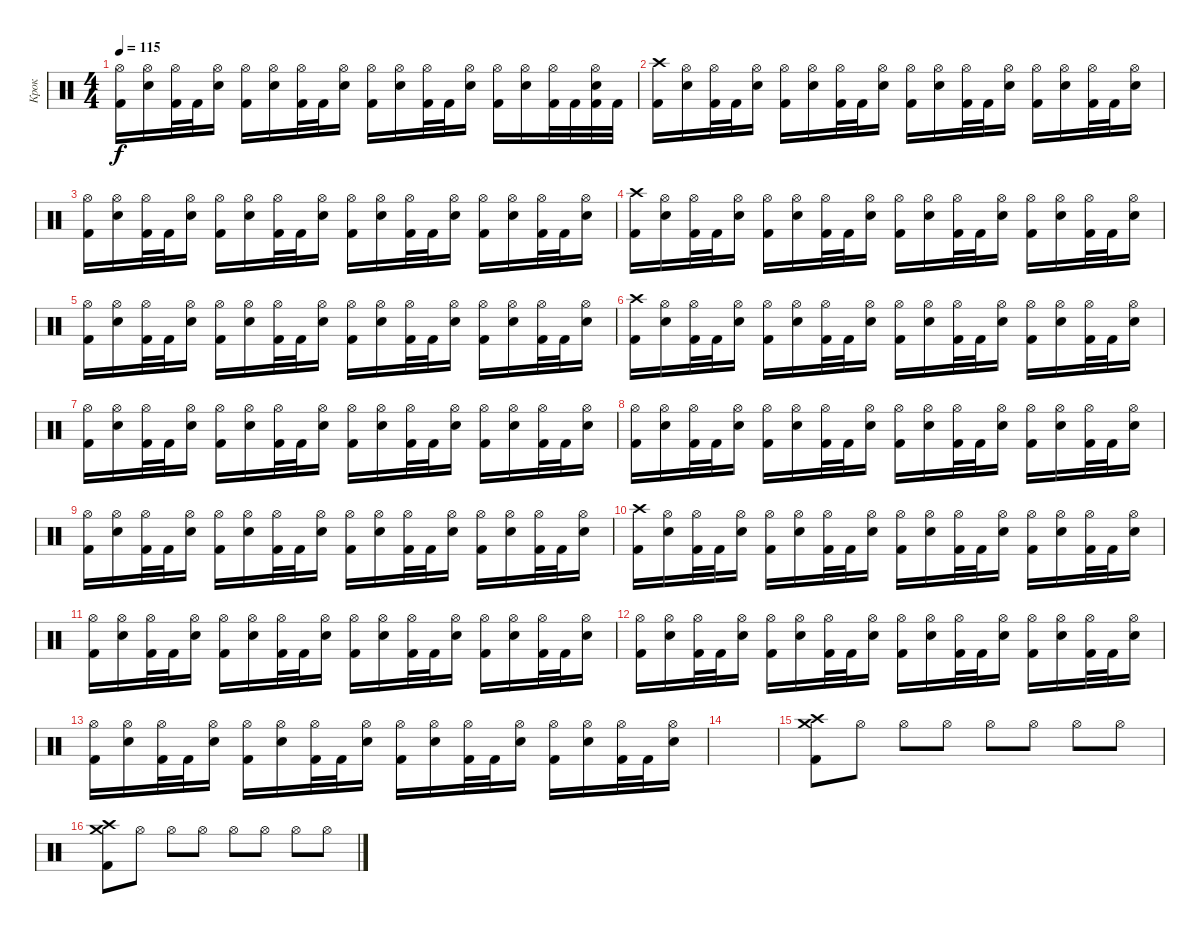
\track ("Крок" "Крок") {instrument percussion}
\staff {score}
\articulation defaults
\ts (4 4)
\tempo 115
\clef neutral
\ks c
("Hi-Hat (open)" "Kick (hit) 2").16{dy f} ("Hi-Hat (open)" "Electric Snare (hit)").16 ("Hi-Hat (open)" "Kick (hit) 2").32 "Kick (hit) 2".32 ("Hi-Hat (open)" "Electric Snare (hit)").16 ("Hi-Hat (open)" "Kick (hit) 2").16 ("Hi-Hat (open)" "Electric Snare (hit)").16 ("Hi-Hat (open)" "Kick (hit) 2").32 "Kick (hit) 2".32 ("Hi-Hat (open)" "Electric Snare (hit)").16 ("Hi-Hat (open)" "Kick (hit) 2").16 ("Hi-Hat (open)" "Electric Snare (hit)").16 ("Hi-Hat (open)" "Kick (hit) 2").32 "Kick (hit) 2".32 ("Hi-Hat (open)" "Electric Snare (hit)").16 ("Hi-Hat (open)" "Kick (hit) 2").16 ("Hi-Hat (open)" "Electric Snare (hit)").16 ("Hi-Hat (open)" "Kick (hit) 2").32 "Kick (hit) 2".32 ("Hi-Hat (open)" "Electric Snare (hit)" "Kick (hit) 2").32 "Kick (hit) 2".32 |
("Crash high (hit)" "Kick (hit) 2").16 ("Hi-Hat (open)" "Electric Snare (hit)").16 ("Hi-Hat (open)" "Kick (hit) 2").32 "Kick (hit) 2".32 ("Hi-Hat (open)" "Electric Snare (hit)").16 ("Hi-Hat (open)" "Kick (hit) 2").16 ("Hi-Hat (open)" "Electric Snare (hit)").16 ("Hi-Hat (open)" "Kick (hit) 2").32 "Kick (hit) 2".32 ("Hi-Hat (open)" "Electric Snare (hit)").16 ("Hi-Hat (open)" "Kick (hit) 2").16 ("Hi-Hat (open)" "Electric Snare (hit)").16 ("Hi-Hat (open)" "Kick (hit) 2").32 "Kick (hit) 2".32 ("Hi-Hat (open)" "Electric Snare (hit)").16 ("Hi-Hat (open)" "Kick (hit) 2").16 ("Hi-Hat (open)" "Electric Snare (hit)").16 ("Hi-Hat (open)" "Kick (hit) 2").32 "Kick (hit) 2".32 ("Hi-Hat (open)" "Electric Snare (hit)").16 |
("Hi-Hat (open)" "Kick (hit) 2").16 ("Hi-Hat (open)" "Electric Snare (hit)").16 ("Hi-Hat (open)" "Kick (hit) 2").32 "Kick (hit) 2".32 ("Hi-Hat (open)" "Electric Snare (hit)").16 ("Hi-Hat (open)" "Kick (hit) 2").16 ("Hi-Hat (open)" "Electric Snare (hit)").16 ("Hi-Hat (open)" "Kick (hit) 2").32 "Kick (hit) 2".32 ("Hi-Hat (open)" "Electric Snare (hit)").16 ("Hi-Hat (open)" "Kick (hit) 2").16 ("Hi-Hat (open)" "Electric Snare (hit)").16 ("Hi-Hat (open)" "Kick (hit) 2").32 "Kick (hit) 2".32 ("Hi-Hat (open)" "Electric Snare (hit)").16 ("Hi-Hat (open)" "Kick (hit) 2").16 ("Hi-Hat (open)" "Electric Snare (hit)").16 ("Hi-Hat (open)" "Kick (hit) 2").32 "Kick (hit) 2".32 ("Hi-Hat (open)" "Electric Snare (hit)").16 |
("Crash high (hit)" "Kick (hit) 2").16 ("Hi-Hat (open)" "Electric Snare (hit)").16 ("Hi-Hat (open)" "Kick (hit) 2").32 "Kick (hit) 2".32 ("Hi-Hat (open)" "Electric Snare (hit)").16 ("Hi-Hat (open)" "Kick (hit) 2").16 ("Hi-Hat (open)" "Electric Snare (hit)").16 ("Hi-Hat (open)" "Kick (hit) 2").32 "Kick (hit) 2".32 ("Hi-Hat (open)" "Electric Snare (hit)").16 ("Hi-Hat (open)" "Kick (hit) 2").16 ("Hi-Hat (open)" "Electric Snare (hit)").16 ("Hi-Hat (open)" "Kick (hit) 2").32 "Kick (hit) 2".32 ("Hi-Hat (open)" "Electric Snare (hit)").16 ("Hi-Hat (open)" "Kick (hit) 2").16 ("Hi-Hat (open)" "Electric Snare (hit)").16 ("Hi-Hat (open)" "Kick (hit) 2").32 "Kick (hit) 2".32 ("Hi-Hat (open)" "Electric Snare (hit)").16 |
("Hi-Hat (open)" "Kick (hit) 2").16 ("Hi-Hat (open)" "Electric Snare (hit)").16 ("Hi-Hat (open)" "Kick (hit) 2").32 "Kick (hit) 2".32 ("Hi-Hat (open)" "Electric Snare (hit)").16 ("Hi-Hat (open)" "Kick (hit) 2").16 ("Hi-Hat (open)" "Electric Snare (hit)").16 ("Hi-Hat (open)" "Kick (hit) 2").32 "Kick (hit) 2".32 ("Hi-Hat (open)" "Electric Snare (hit)").16 ("Hi-Hat (open)" "Kick (hit) 2").16 ("Hi-Hat (open)" "Electric Snare (hit)").16 ("Hi-Hat (open)" "Kick (hit) 2").32 "Kick (hit) 2".32 ("Hi-Hat (open)" "Electric Snare (hit)").16 ("Hi-Hat (open)" "Kick (hit) 2").16 ("Hi-Hat (open)" "Electric Snare (hit)").16 ("Hi-Hat (open)" "Kick (hit) 2").32 "Kick (hit) 2".32 ("Hi-Hat (open)" "Electric Snare (hit)").16 |
("Crash high (hit)" "Kick (hit) 2").16 ("Hi-Hat (open)" "Electric Snare (hit)").16 ("Hi-Hat (open)" "Kick (hit) 2").32 "Kick (hit) 2".32 ("Hi-Hat (open)" "Electric Snare (hit)").16 ("Hi-Hat (open)" "Kick (hit) 2").16 ("Hi-Hat (open)" "Electric Snare (hit)").16 ("Hi-Hat (open)" "Kick (hit) 2").32 "Kick (hit) 2".32 ("Hi-Hat (open)" "Electric Snare (hit)").16 ("Hi-Hat (open)" "Kick (hit) 2").16 ("Hi-Hat (open)" "Electric Snare (hit)").16 ("Hi-Hat (open)" "Kick (hit) 2").32 "Kick (hit) 2".32 ("Hi-Hat (open)" "Electric Snare (hit)").16 ("Hi-Hat (open)" "Kick (hit) 2").16 ("Hi-Hat (open)" "Electric Snare (hit)").16 ("Hi-Hat (open)" "Kick (hit) 2").32 "Kick (hit) 2".32 ("Hi-Hat (open)" "Electric Snare (hit)").16 |
("Hi-Hat (open)" "Kick (hit) 2").16 ("Hi-Hat (open)" "Electric Snare (hit)").16 ("Hi-Hat (open)" "Kick (hit) 2").32 "Kick (hit) 2".32 ("Hi-Hat (open)" "Electric Snare (hit)").16 ("Hi-Hat (open)" "Kick (hit) 2").16 ("Hi-Hat (open)" "Electric Snare (hit)").16 ("Hi-Hat (open)" "Kick (hit) 2").32 "Kick (hit) 2".32 ("Hi-Hat (open)" "Electric Snare (hit)").16 ("Hi-Hat (open)" "Kick (hit) 2").16 ("Hi-Hat (open)" "Electric Snare (hit)").16 ("Hi-Hat (open)" "Kick (hit) 2").32 "Kick (hit) 2".32 ("Hi-Hat (open)" "Electric Snare (hit)").16 ("Hi-Hat (open)" "Kick (hit) 2").16 ("Hi-Hat (open)" "Electric Snare (hit)").16 ("Hi-Hat (open)" "Kick (hit) 2").32 "Kick (hit) 2".32 ("Hi-Hat (open)" "Electric Snare (hit)").16 |
("Hi-Hat (open)" "Kick (hit) 2").16 ("Hi-Hat (open)" "Electric Snare (hit)").16 ("Hi-Hat (open)" "Kick (hit) 2").32 "Kick (hit) 2".32 ("Hi-Hat (open)" "Electric Snare (hit)").16 ("Hi-Hat (open)" "Kick (hit) 2").16 ("Hi-Hat (open)" "Electric Snare (hit)").16 ("Hi-Hat (open)" "Kick (hit) 2").32 "Kick (hit) 2".32 ("Hi-Hat (open)" "Electric Snare (hit)").16 ("Hi-Hat (open)" "Kick (hit) 2").16 ("Hi-Hat (open)" "Electric Snare (hit)").16 ("Hi-Hat (open)" "Kick (hit) 2").32 "Kick (hit) 2".32 ("Hi-Hat (open)" "Electric Snare (hit)").16 ("Hi-Hat (open)" "Kick (hit) 2").16 ("Hi-Hat (open)" "Electric Snare (hit)").16 ("Hi-Hat (open)" "Kick (hit) 2").32 "Kick (hit) 2".32 ("Hi-Hat (open)" "Electric Snare (hit)").16 |
("Hi-Hat (open)" "Kick (hit) 2").16 ("Hi-Hat (open)" "Electric Snare (hit)").16 ("Hi-Hat (open)" "Kick (hit) 2").32 "Kick (hit) 2".32 ("Hi-Hat (open)" "Electric Snare (hit)").16 ("Hi-Hat (open)" "Kick (hit) 2").16 ("Hi-Hat (open)" "Electric Snare (hit)").16 ("Hi-Hat (open)" "Kick (hit) 2").32 "Kick (hit) 2".32 ("Hi-Hat (open)" "Electric Snare (hit)").16 ("Hi-Hat (open)" "Kick (hit) 2").16 ("Hi-Hat (open)" "Electric Snare (hit)").16 ("Hi-Hat (open)" "Kick (hit) 2").32 "Kick (hit) 2".32 ("Hi-Hat (open)" "Electric Snare (hit)").16 ("Hi-Hat (open)" "Kick (hit) 2").16 ("Hi-Hat (open)" "Electric Snare (hit)").16 ("Hi-Hat (open)" "Kick (hit) 2").32 "Kick (hit) 2".32 ("Hi-Hat (open)" "Electric Snare (hit)").16 |
("Crash high (hit)" "Kick (hit) 2").16 ("Hi-Hat (open)" "Electric Snare (hit)").16 ("Hi-Hat (open)" "Kick (hit) 2").32 "Kick (hit) 2".32 ("Hi-Hat (open)" "Electric Snare (hit)").16 ("Hi-Hat (open)" "Kick (hit) 2").16 ("Hi-Hat (open)" "Electric Snare (hit)").16 ("Hi-Hat (open)" "Kick (hit) 2").32 "Kick (hit) 2".32 ("Hi-Hat (open)" "Electric Snare (hit)").16 ("Hi-Hat (open)" "Kick (hit) 2").16 ("Hi-Hat (open)" "Electric Snare (hit)").16 ("Hi-Hat (open)" "Kick (hit) 2").32 "Kick (hit) 2".32 ("Hi-Hat (open)" "Electric Snare (hit)").16 ("Hi-Hat (open)" "Kick (hit) 2").16 ("Hi-Hat (open)" "Electric Snare (hit)").16 ("Hi-Hat (open)" "Kick (hit) 2").32 "Kick (hit) 2".32 ("Hi-Hat (open)" "Electric Snare (hit)").16 |
("Hi-Hat (open)" "Kick (hit) 2").16 ("Hi-Hat (open)" "Electric Snare (hit)").16 ("Hi-Hat (open)" "Kick (hit) 2").32 "Kick (hit) 2".32 ("Hi-Hat (open)" "Electric Snare (hit)").16 ("Hi-Hat (open)" "Kick (hit) 2").16 ("Hi-Hat (open)" "Electric Snare (hit)").16 ("Hi-Hat (open)" "Kick (hit) 2").32 "Kick (hit) 2".32 ("Hi-Hat (open)" "Electric Snare (hit)").16 ("Hi-Hat (open)" "Kick (hit) 2").16 ("Hi-Hat (open)" "Electric Snare (hit)").16 ("Hi-Hat (open)" "Kick (hit) 2").32 "Kick (hit) 2".32 ("Hi-Hat (open)" "Electric Snare (hit)").16 ("Hi-Hat (open)" "Kick (hit) 2").16 ("Hi-Hat (open)" "Electric Snare (hit)").16 ("Hi-Hat (open)" "Kick (hit) 2").32 "Kick (hit) 2".32 ("Hi-Hat (open)" "Electric Snare (hit)").16 |
("Hi-Hat (open)" "Kick (hit) 2").16 ("Hi-Hat (open)" "Electric Snare (hit)").16 ("Hi-Hat (open)" "Kick (hit) 2").32 "Kick (hit) 2".32 ("Hi-Hat (open)" "Electric Snare (hit)").16 ("Hi-Hat (open)" "Kick (hit) 2").16 ("Hi-Hat (open)" "Electric Snare (hit)").16 ("Hi-Hat (open)" "Kick (hit) 2").32 "Kick (hit) 2".32 ("Hi-Hat (open)" "Electric Snare (hit)").16 ("Hi-Hat (open)" "Kick (hit) 2").16 ("Hi-Hat (open)" "Electric Snare (hit)").16 ("Hi-Hat (open)" "Kick (hit) 2").32 "Kick (hit) 2".32 ("Hi-Hat (open)" "Electric Snare (hit)").16 ("Hi-Hat (open)" "Kick (hit) 2").16 ("Hi-Hat (open)" "Electric Snare (hit)").16 ("Hi-Hat (open)" "Kick (hit) 2").32 "Kick (hit) 2".32 ("Hi-Hat (open)" "Electric Snare (hit)").16 |
("Hi-Hat (open)" "Kick (hit) 2").16 ("Hi-Hat (open)" "Electric Snare (hit)").16 ("Hi-Hat (open)" "Kick (hit) 2").32 "Kick (hit) 2".32 ("Hi-Hat (open)" "Electric Snare (hit)").16 ("Hi-Hat (open)" "Kick (hit) 2").16 ("Hi-Hat (open)" "Electric Snare (hit)").16 ("Hi-Hat (open)" "Kick (hit) 2").32 "Kick (hit) 2".32 ("Hi-Hat (open)" "Electric Snare (hit)").16 ("Hi-Hat (open)" "Kick (hit) 2").16 ("Hi-Hat (open)" "Electric Snare (hit)").16 ("Hi-Hat (open)" "Kick (hit) 2").32 "Kick (hit) 2".32 ("Hi-Hat (open)" "Electric Snare (hit)").16 ("Hi-Hat (open)" "Kick (hit) 2").16 ("Hi-Hat (open)" "Electric Snare (hit)").16 ("Hi-Hat (open)" "Kick (hit) 2").32 "Kick (hit) 2".32 ("Hi-Hat (open)" "Electric Snare (hit)").16 |
|
("Crash high (hit)" "Crash medium (hit)" "Kick (hit) 2").8 "Hi-Hat (open)".8 "Hi-Hat (open)".8 "Hi-Hat (open)".8 "Hi-Hat (open)".8 "Hi-Hat (open)".8 "Hi-Hat (open)".8 "Hi-Hat (open)".8 |
("Crash high (hit)" "Crash medium (hit)" "Kick (hit) 2").8 "Hi-Hat (open)".8 "Hi-Hat (open)".8 "Hi-Hat (open)".8 "Hi-Hat (open)".8 "Hi-Hat (open)".8 "Hi-Hat (open)".8 "Hi-Hat (open)".8
